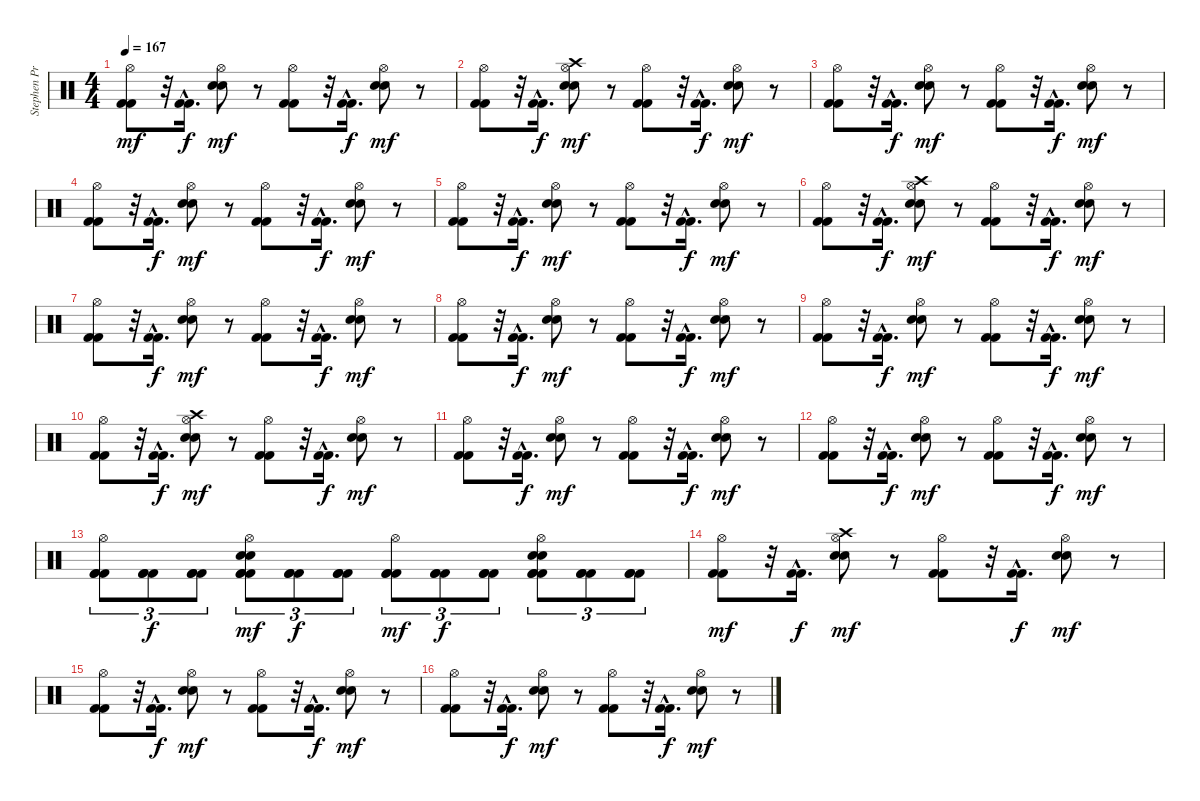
\track ("Stephen Priestly  (Drums)" "Stephen Pr") {instrument percussion}
\staff {score}
\articulation defaults
\ts (4 4)
\tempo 167
\clef neutral
\ks c
("Hi-Hat (open)" "Kick (hit) 2" "Kick (hit) 2").8{dy mf} r.32 ("Kick (hit) 2"{hac} "Kick (hit) 2"{hac}).16{d dy f} ("Hi-Hat (open)" "Electric Snare (hit)" "Electric Snare (hit)").8{dy mf} r.8 ("Hi-Hat (open)" "Kick (hit) 2" "Kick (hit) 2").8 r.32 ("Kick (hit) 2"{hac} "Kick (hit) 2"{hac}).16{d dy f} ("Hi-Hat (open)" "Electric Snare (hit)" "Electric Snare (hit)").8{dy mf} r.8 |
("Hi-Hat (open)" "Kick (hit) 2" "Kick (hit) 2").8 r.32 ("Kick (hit) 2"{hac} "Kick (hit) 2"{hac}).16{d dy f} ("Crash high (hit)" "Hi-Hat (open)" "Electric Snare (hit)" "Electric Snare (hit)").8{dy mf} r.8 ("Hi-Hat (open)" "Kick (hit) 2" "Kick (hit) 2").8 r.32 ("Kick (hit) 2"{hac} "Kick (hit) 2"{hac}).16{d dy f} ("Hi-Hat (open)" "Electric Snare (hit)" "Electric Snare (hit)").8{dy mf} r.8 |
("Hi-Hat (open)" "Kick (hit) 2" "Kick (hit) 2").8 r.32 ("Kick (hit) 2"{hac} "Kick (hit) 2"{hac}).16{d dy f} ("Hi-Hat (open)" "Electric Snare (hit)" "Electric Snare (hit)").8{dy mf} r.8 ("Hi-Hat (open)" "Kick (hit) 2" "Kick (hit) 2").8 r.32 ("Kick (hit) 2"{hac} "Kick (hit) 2"{hac}).16{d dy f} ("Hi-Hat (open)" "Electric Snare (hit)" "Electric Snare (hit)").8{dy mf} r.8 |
("Hi-Hat (open)" "Kick (hit) 2" "Kick (hit) 2").8 r.32 ("Kick (hit) 2"{hac} "Kick (hit) 2"{hac}).16{d dy f} ("Hi-Hat (open)" "Electric Snare (hit)" "Electric Snare (hit)").8{dy mf} r.8 ("Hi-Hat (open)" "Kick (hit) 2" "Kick (hit) 2").8 r.32 ("Kick (hit) 2"{hac} "Kick (hit) 2"{hac}).16{d dy f} ("Hi-Hat (open)" "Electric Snare (hit)" "Electric Snare (hit)").8{dy mf} r.8 |
("Hi-Hat (open)" "Kick (hit) 2" "Kick (hit) 2").8 r.32 ("Kick (hit) 2"{hac} "Kick (hit) 2"{hac}).16{d dy f} ("Hi-Hat (open)" "Electric Snare (hit)" "Electric Snare (hit)").8{dy mf} r.8 ("Hi-Hat (open)" "Kick (hit) 2" "Kick (hit) 2").8 r.32 ("Kick (hit) 2"{hac} "Kick (hit) 2"{hac}).16{d dy f} ("Hi-Hat (open)" "Electric Snare (hit)" "Electric Snare (hit)").8{dy mf} r.8 |
("Hi-Hat (open)" "Kick (hit) 2" "Kick (hit) 2").8 r.32 ("Kick (hit) 2"{hac} "Kick (hit) 2"{hac}).16{d dy f} ("Crash high (hit)" "Hi-Hat (open)" "Electric Snare (hit)" "Electric Snare (hit)").8{dy mf} r.8 ("Hi-Hat (open)" "Kick (hit) 2" "Kick (hit) 2").8 r.32 ("Kick (hit) 2"{hac} "Kick (hit) 2"{hac}).16{d dy f} ("Hi-Hat (open)" "Electric Snare (hit)" "Electric Snare (hit)").8{dy mf} r.8 |
("Hi-Hat (open)" "Kick (hit) 2" "Kick (hit) 2").8 r.32 ("Kick (hit) 2"{hac} "Kick (hit) 2"{hac}).16{d dy f} ("Hi-Hat (open)" "Electric Snare (hit)" "Electric Snare (hit)").8{dy mf} r.8 ("Hi-Hat (open)" "Kick (hit) 2" "Kick (hit) 2").8 r.32 ("Kick (hit) 2"{hac} "Kick (hit) 2"{hac}).16{d dy f} ("Hi-Hat (open)" "Electric Snare (hit)" "Electric Snare (hit)").8{dy mf} r.8 |
("Hi-Hat (open)" "Kick (hit) 2" "Kick (hit) 2").8 r.32 ("Kick (hit) 2"{hac} "Kick (hit) 2"{hac}).16{d dy f} ("Hi-Hat (open)" "Electric Snare (hit)" "Electric Snare (hit)").8{dy mf} r.8 ("Hi-Hat (open)" "Kick (hit) 2" "Kick (hit) 2").8 r.32 ("Kick (hit) 2"{hac} "Kick (hit) 2"{hac}).16{d dy f} ("Hi-Hat (open)" "Electric Snare (hit)" "Electric Snare (hit)").8{dy mf} r.8 |
("Hi-Hat (open)" "Kick (hit) 2" "Kick (hit) 2").8 r.32 ("Kick (hit) 2"{hac} "Kick (hit) 2"{hac}).16{d dy f} ("Hi-Hat (open)" "Electric Snare (hit)" "Electric Snare (hit)").8{dy mf} r.8 ("Hi-Hat (open)" "Kick (hit) 2" "Kick (hit) 2").8 r.32 ("Kick (hit) 2"{hac} "Kick (hit) 2"{hac}).16{d dy f} ("Hi-Hat (open)" "Electric Snare (hit)" "Electric Snare (hit)").8{dy mf} r.8 |
("Hi-Hat (open)" "Kick (hit) 2" "Kick (hit) 2").8 r.32 ("Kick (hit) 2"{hac} "Kick (hit) 2"{hac}).16{d dy f} ("Crash high (hit)" "Hi-Hat (open)" "Electric Snare (hit)" "Electric Snare (hit)").8{dy mf} r.8 ("Hi-Hat (open)" "Kick (hit) 2" "Kick (hit) 2").8 r.32 ("Kick (hit) 2"{hac} "Kick (hit) 2"{hac}).16{d dy f} ("Hi-Hat (open)" "Electric Snare (hit)" "Electric Snare (hit)").8{dy mf} r.8 |
("Hi-Hat (open)" "Kick (hit) 2" "Kick (hit) 2").8 r.32 ("Kick (hit) 2"{hac} "Kick (hit) 2"{hac}).16{d dy f} ("Hi-Hat (open)" "Electric Snare (hit)" "Electric Snare (hit)").8{dy mf} r.8 ("Hi-Hat (open)" "Kick (hit) 2" "Kick (hit) 2").8 r.32 ("Kick (hit) 2"{hac} "Kick (hit) 2"{hac}).16{d dy f} ("Hi-Hat (open)" "Electric Snare (hit)" "Electric Snare (hit)").8{dy mf} r.8 |
("Hi-Hat (open)" "Kick (hit) 2" "Kick (hit) 2").8 r.32 ("Kick (hit) 2"{hac} "Kick (hit) 2"{hac}).16{d dy f} ("Hi-Hat (open)" "Electric Snare (hit)" "Electric Snare (hit)").8{dy mf} r.8 ("Hi-Hat (open)" "Kick (hit) 2" "Kick (hit) 2").8 r.32 ("Kick (hit) 2"{hac} "Kick (hit) 2"{hac}).16{d dy f} ("Hi-Hat (open)" "Electric Snare (hit)" "Electric Snare (hit)").8{dy mf} r.8 |
("Hi-Hat (open)" "Kick (hit) 2" "Kick (hit) 2" "Kick (hit) 2").8{tu (3 2)} ("Kick (hit) 2" "Kick (hit) 2" "Kick (hit) 2").8{tu (3 2) dy f} ("Kick (hit) 2" "Kick (hit) 2" "Kick (hit) 2").8{tu (3 2)} ("Electric Snare (hit)" "Hi-Hat (open)" "Electric Snare (hit)" "Kick (hit) 2" "Kick (hit) 2" "Kick (hit) 2").8{tu (3 2) dy mf} ("Kick (hit) 2" "Kick (hit) 2" "Kick (hit) 2").8{tu (3 2) dy f} ("Kick (hit) 2" "Kick (hit) 2" "Kick (hit) 2").8{tu (3 2)} ("Hi-Hat (open)" "Kick (hit) 2" "Kick (hit) 2" "Kick (hit) 2").8{tu (3 2) dy mf} ("Kick (hit) 2" "Kick (hit) 2" "Kick (hit) 2").8{tu (3 2) dy f} ("Kick (hit) 2" "Kick (hit) 2" "Kick (hit) 2").8{tu (3 2)} ("Electric Snare (hit)" "Hi-Hat (open)" "Electric Snare (hit)" "Kick (hit) 2" "Kick (hit) 2" "Kick (hit) 2").8{tu (3 2)} ("Kick (hit) 2" "Kick (hit) 2" "Kick (hit) 2").8{tu (3 2)} ("Kick (hit) 2" "Kick (hit) 2" "Kick (hit) 2").8{tu (3 2)} |
("Hi-Hat (open)" "Kick (hit) 2" "Kick (hit) 2").8{dy mf} r.32 ("Kick (hit) 2"{hac} "Kick (hit) 2"{hac}).16{d dy f} ("Crash high (hit)" "Hi-Hat (open)" "Electric Snare (hit)" "Electric Snare (hit)").8{dy mf} r.8 ("Hi-Hat (open)" "Kick (hit) 2" "Kick (hit) 2").8 r.32 ("Kick (hit) 2"{hac} "Kick (hit) 2"{hac}).16{d dy f} ("Hi-Hat (open)" "Electric Snare (hit)" "Electric Snare (hit)").8{dy mf} r.8 |
("Hi-Hat (open)" "Kick (hit) 2" "Kick (hit) 2").8 r.32 ("Kick (hit) 2"{hac} "Kick (hit) 2"{hac}).16{d dy f} ("Hi-Hat (open)" "Electric Snare (hit)" "Electric Snare (hit)").8{dy mf} r.8 ("Hi-Hat (open)" "Kick (hit) 2" "Kick (hit) 2").8 r.32 ("Kick (hit) 2"{hac} "Kick (hit) 2"{hac}).16{d dy f} ("Hi-Hat (open)" "Electric Snare (hit)" "Electric Snare (hit)").8{dy mf} r.8 |
("Hi-Hat (open)" "Kick (hit) 2" "Kick (hit) 2").8 r.32 ("Kick (hit) 2"{hac} "Kick (hit) 2"{hac}).16{d dy f} ("Hi-Hat (open)" "Electric Snare (hit)" "Electric Snare (hit)").8{dy mf} r.8 ("Hi-Hat (open)" "Kick (hit) 2" "Kick (hit) 2").8 r.32 ("Kick (hit) 2"{hac} "Kick (hit) 2"{hac}).16{d dy f} ("Hi-Hat (open)" "Electric Snare (hit)" "Electric Snare (hit)").8{dy mf} r.8
